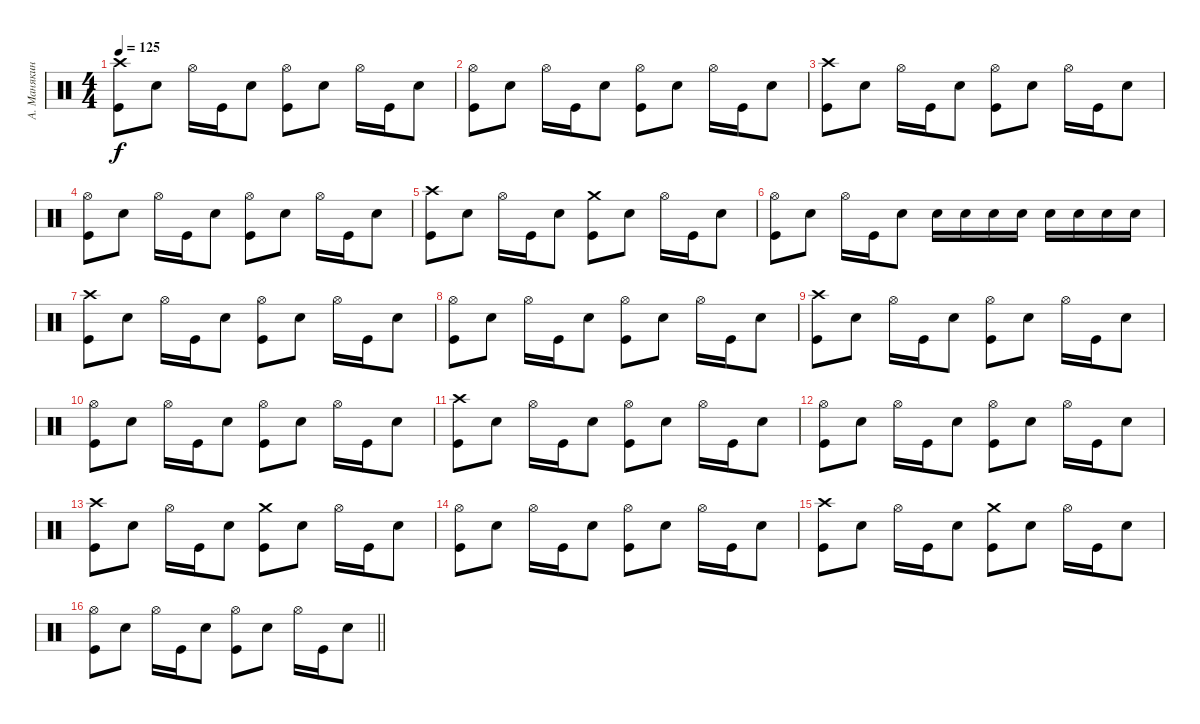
\track ("А. Манякин" "А. Манякин") {instrument percussion}
\staff {score}
\articulation defaults
\ts (4 4)
\tempo 125
\clef neutral
\ks c
("Kick (hit)" "Crash high (hit)").8{dy f} "Electric Snare (hit)".8 "Hi-Hat (open)".16 "Kick (hit)".16 "Electric Snare (hit)".8 ("Kick (hit)" "Hi-Hat (open)").8 "Electric Snare (hit)".8 "Hi-Hat (open)".16 "Kick (hit)".16 "Electric Snare (hit)".8 |
("Kick (hit)" "Hi-Hat (open)").8 "Electric Snare (hit)".8 "Hi-Hat (open)".16 "Kick (hit)".16 "Electric Snare (hit)".8 ("Kick (hit)" "Hi-Hat (open)").8 "Electric Snare (hit)".8 "Hi-Hat (open)".16 "Kick (hit)".16 "Electric Snare (hit)".8 |
("Kick (hit)" "Crash high (hit)").8 "Electric Snare (hit)".8 "Hi-Hat (open)".16 "Kick (hit)".16 "Electric Snare (hit)".8 ("Kick (hit)" "Hi-Hat (open)").8 "Electric Snare (hit)".8 "Hi-Hat (open)".16 "Kick (hit)".16 "Electric Snare (hit)".8 |
("Kick (hit)" "Hi-Hat (open)").8 "Electric Snare (hit)".8 "Hi-Hat (open)".16 "Kick (hit)".16 "Electric Snare (hit)".8 ("Kick (hit)" "Hi-Hat (open)").8 "Electric Snare (hit)".8 "Hi-Hat (open)".16 "Kick (hit)".16 "Electric Snare (hit)".8 |
("Kick (hit)" "Crash high (hit)").8 "Electric Snare (hit)".8 "Hi-Hat (open)".16 "Kick (hit)".16 "Electric Snare (hit)".8 ("Kick (hit)" "Crash medium (hit)").8 "Electric Snare (hit)".8 "Hi-Hat (open)".16 "Kick (hit)".16 "Electric Snare (hit)".8 |
("Kick (hit)" "Hi-Hat (open)").8 "Electric Snare (hit)".8 "Hi-Hat (open)".16 "Kick (hit)".16 "Electric Snare (hit)".8 "Electric Snare (hit)".16 "Electric Snare (hit)".16 "Electric Snare (hit)".16 "Electric Snare (hit)".16 "Electric Snare (hit)".16 "Electric Snare (hit)".16 "Electric Snare (hit)".16 "Electric Snare (hit)".16 |
("Kick (hit)" "Crash high (hit)").8 "Electric Snare (hit)".8 "Hi-Hat (open)".16 "Kick (hit)".16 "Electric Snare (hit)".8 ("Kick (hit)" "Hi-Hat (open)").8 "Electric Snare (hit)".8 "Hi-Hat (open)".16 "Kick (hit)".16 "Electric Snare (hit)".8 |
("Kick (hit)" "Hi-Hat (open)").8 "Electric Snare (hit)".8 "Hi-Hat (open)".16 "Kick (hit)".16 "Electric Snare (hit)".8 ("Kick (hit)" "Hi-Hat (open)").8 "Electric Snare (hit)".8 "Hi-Hat (open)".16 "Kick (hit)".16 "Electric Snare (hit)".8 |
("Kick (hit)" "Crash high (hit)").8 "Electric Snare (hit)".8 "Hi-Hat (open)".16 "Kick (hit)".16 "Electric Snare (hit)".8 ("Kick (hit)" "Hi-Hat (open)").8 "Electric Snare (hit)".8 "Hi-Hat (open)".16 "Kick (hit)".16 "Electric Snare (hit)".8 |
("Kick (hit)" "Hi-Hat (open)").8 "Electric Snare (hit)".8 "Hi-Hat (open)".16 "Kick (hit)".16 "Electric Snare (hit)".8 ("Kick (hit)" "Hi-Hat (open)").8 "Electric Snare (hit)".8 "Hi-Hat (open)".16 "Kick (hit)".16 "Electric Snare (hit)".8 |
("Kick (hit)" "Crash high (hit)").8 "Electric Snare (hit)".8 "Hi-Hat (open)".16 "Kick (hit)".16 "Electric Snare (hit)".8 ("Kick (hit)" "Hi-Hat (open)").8 "Electric Snare (hit)".8 "Hi-Hat (open)".16 "Kick (hit)".16 "Electric Snare (hit)".8 |
("Kick (hit)" "Hi-Hat (open)").8 "Electric Snare (hit)".8 "Hi-Hat (open)".16 "Kick (hit)".16 "Electric Snare (hit)".8 ("Kick (hit)" "Hi-Hat (open)").8 "Electric Snare (hit)".8 "Hi-Hat (open)".16 "Kick (hit)".16 "Electric Snare (hit)".8 |
("Kick (hit)" "Crash high (hit)").8 "Electric Snare (hit)".8 "Hi-Hat (open)".16 "Kick (hit)".16 "Electric Snare (hit)".8 ("Kick (hit)" "Crash medium (hit)").8 "Electric Snare (hit)".8 "Hi-Hat (open)".16 "Kick (hit)".16 "Electric Snare (hit)".8 |
("Kick (hit)" "Hi-Hat (open)").8 "Electric Snare (hit)".8 "Hi-Hat (open)".16 "Kick (hit)".16 "Electric Snare (hit)".8 ("Kick (hit)" "Hi-Hat (open)").8 "Electric Snare (hit)".8 "Hi-Hat (open)".16 "Kick (hit)".16 "Electric Snare (hit)".8 |
("Kick (hit)" "Crash high (hit)").8 "Electric Snare (hit)".8 "Hi-Hat (open)".16 "Kick (hit)".16 "Electric Snare (hit)".8 ("Kick (hit)" "Crash medium (hit)").8 "Electric Snare (hit)".8 "Hi-Hat (open)".16 "Kick (hit)".16 "Electric Snare (hit)".8 |
\barLineRight lightlight
("Kick (hit)" "Hi-Hat (open)").8 "Electric Snare (hit)".8 "Hi-Hat (open)".16 "Kick (hit)".16 "Electric Snare (hit)".8 ("Kick (hit)" "Hi-Hat (open)").8 "Electric Snare (hit)".8 "Hi-Hat (open)".16 "Kick (hit)".16 "Electric Snare (hit)".8
